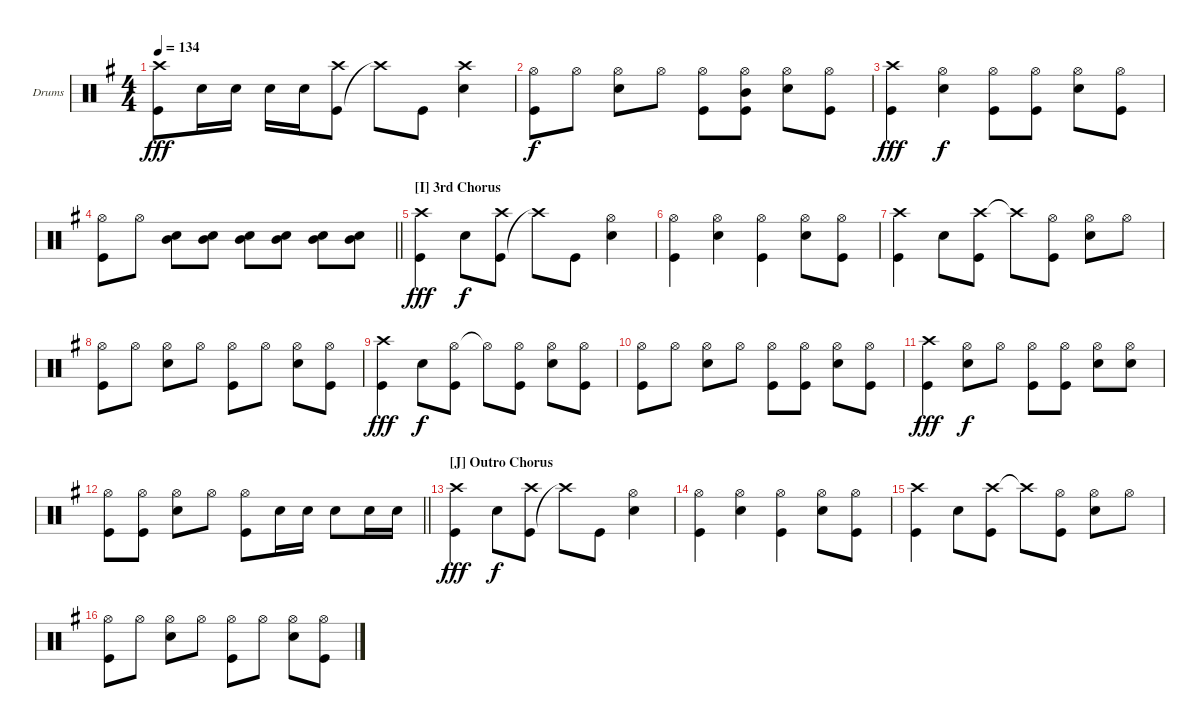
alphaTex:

\defaultSystemsLayout 4
\bracketExtendMode groupsimilarinstruments
\firstSystemTrackNameOrientation horizontal
\otherSystemsTrackNameOrientation horizontal
\track ("Bobby Blotzer" "Drums") {instrument percussion}
\staff {score}
\articulation defaults
\ts (4 4)
\tempo 134
\clef neutral
\ks g
("Kick (hit)" "Crash high (hit)").8{dy fff} "Snare (hit) 2".16 "Snare (hit) 2".16 "Snare (hit) 2".16 "Snare (hit) 2".16 ("Kick (hit)" "Crash high (hit)").8 "Crash high (hit)"{t}.8 "Kick (hit)".8 ("Snare (hit) 2" "Crash high (hit)").4 |
("Kick (hit)" "Hi-Hat (open)").8{dy f} "Hi-Hat (open)".8 ("Hi-Hat (open)" "Snare (hit) 2").8 "Hi-Hat (open)".8 ("Hi-Hat (open)" "Kick (hit)").8 ("Hi-Hat (open)" "Kick (hit)" "Mid Tom (hit)").8 ("Hi-Hat (open)" "Snare (hit) 2").8 ("Hi-Hat (open)" "Kick (hit)").8 |
("Kick (hit)" "Crash high (hit)").4{dy fff} ("Hi-Hat (open)" "Snare (hit) 2").4{dy f} ("Kick (hit)" "Hi-Hat (open)").8 ("Kick (hit)" "Hi-Hat (open)").8 ("Snare (hit) 2" "Hi-Hat (open)").8 ("Kick (hit)" "Hi-Hat (open)").8 |
\barLineRight lightlight
("Kick (hit)" "Hi-Hat (open)").8 "Hi-Hat (open)".8 ("Mid Tom (hit)" "Snare (hit) 2").8 ("Mid Tom (hit)" "Snare (hit) 2").8 ("Mid Tom (hit)" "Snare (hit) 2").8 ("Mid Tom (hit)" "Snare (hit) 2").8 ("Mid Tom (hit)" "Snare (hit) 2").8 ("Mid Tom (hit)" "Snare (hit) 2").8 |
\section ("I" "3rd Chorus")
("Crash high (hit)" "Kick (hit)").4{dy fff} "Snare (hit) 2".8{dy f} ("Kick (hit)" "Crash high (hit)").8 "Crash high (hit)"{t}.8 "Kick (hit)".8 ("Snare (hit) 2" "Hi-Hat (open)").4 |
("Hi-Hat (open)" "Kick (hit)").4 ("Hi-Hat (open)" "Snare (hit) 2").4 ("Hi-Hat (open)" "Kick (hit)").4 ("Snare (hit) 2" "Hi-Hat (open)").8 ("Kick (hit)" "Hi-Hat (open)").8 |
("Crash high (hit)" "Kick (hit)").4 "Snare (hit) 2".8 ("Crash high (hit)" "Kick (hit)").8 "Crash high (hit)"{t}.8 ("Kick (hit)" "Hi-Hat (open)").8 ("Snare (hit) 2" "Hi-Hat (open)").8 "Hi-Hat (open)".8 |
("Hi-Hat (open)" "Kick (hit)").8 "Hi-Hat (open)".8 ("Hi-Hat (open)" "Snare (hit) 2").8 "Hi-Hat (open)".8 ("Hi-Hat (open)" "Kick (hit)").8 "Hi-Hat (open)".8 ("Hi-Hat (open)" "Snare (hit) 2").8 ("Hi-Hat (open)" "Kick (hit)").8 |
("Crash high (hit)" "Kick (hit)").4{dy fff} "Snare (hit) 2".8{dy f} ("Hi-Hat (open)" "Kick (hit)").8 "Hi-Hat (open)"{t}.8 ("Kick (hit)" "Hi-Hat (open)").8 ("Snare (hit) 2" "Hi-Hat (open)").8 ("Kick (hit)" "Hi-Hat (open)").8 |
("Hi-Hat (open)" "Kick (hit)").8 "Hi-Hat (open)".8 ("Hi-Hat (open)" "Snare (hit) 2").8 "Hi-Hat (open)".8 ("Hi-Hat (open)" "Kick (hit)").8 ("Hi-Hat (open)" "Kick (hit)").8 ("Hi-Hat (open)" "Snare (hit) 2").8 ("Hi-Hat (open)" "Kick (hit)").8 |
("Kick (hit)" "Crash high (hit)").4{dy fff} ("Snare (hit) 2" "Hi-Hat (open)").8{dy f} "Hi-Hat (open)".8 ("Hi-Hat (open)" "Kick (hit)").8 ("Hi-Hat (open)" "Kick (hit)").8 ("Hi-Hat (open)" "Snare (hit) 2").8 ("Hi-Hat (open)" "Snare (hit) 2").8 |
\barLineRight lightlight
("Hi-Hat (open)" "Kick (hit)").8 ("Hi-Hat (open)" "Kick (hit)").8 ("Hi-Hat (open)" "Snare (hit) 2").8 "Hi-Hat (open)".8 ("Hi-Hat (open)" "Kick (hit)").8 "Snare (hit) 2".16 "Snare (hit) 2".16 "Snare (hit) 2".8 "Snare (hit) 2".16 "Snare (hit) 2".16 |
\section ("J" "Outro Chorus")
("Crash high (hit)" "Kick (hit)").4{dy fff} "Snare (hit) 2".8{dy f} ("Kick (hit)" "Crash high (hit)").8 "Crash high (hit)"{t}.8 "Kick (hit)".8 ("Snare (hit) 2" "Hi-Hat (open)").4 |
("Hi-Hat (open)" "Kick (hit)").4 ("Hi-Hat (open)" "Snare (hit) 2").4 ("Hi-Hat (open)" "Kick (hit)").4 ("Snare (hit) 2" "Hi-Hat (open)").8 ("Kick (hit)" "Hi-Hat (open)").8 |
("Crash high (hit)" "Kick (hit)").4 "Snare (hit) 2".8 ("Crash high (hit)" "Kick (hit)").8 "Crash high (hit)"{t}.8 ("Kick (hit)" "Hi-Hat (open)").8 ("Snare (hit) 2" "Hi-Hat (open)").8 "Hi-Hat (open)".8 |
("Hi-Hat (open)" "Kick (hit)").8 "Hi-Hat (open)".8 ("Hi-Hat (open)" "Snare (hit) 2").8 "Hi-Hat (open)".8 ("Hi-Hat (open)" "Kick (hit)").8 "Hi-Hat (open)".8 ("Hi-Hat (open)" "Snare (hit) 2").8 ("Hi-Hat (open)" "Kick (hit)").8
